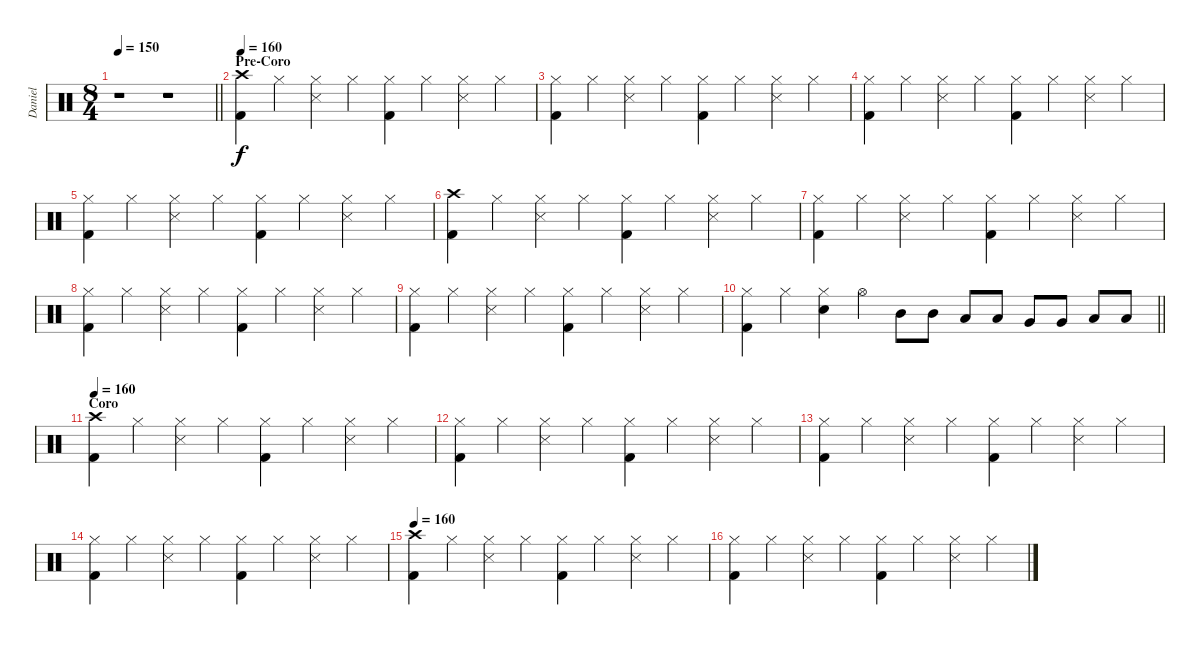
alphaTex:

\track ("Daniel" "Daniel") {instrument percussion}
\staff {score}
\articulation defaults
\ts (8 4)
\tempo 150
\clef neutral
\barLineRight lightlight
\ks c
r.1{dy f} r.1 |
\section ("" "Pre-Coro")
\tempo 160
("Crash high (hit)" "Kick (hit) 2").4 "Hi-Hat (closed)".4 ("Hi-Hat (closed)" "Snare (side stick) 3").4 "Hi-Hat (closed)".4 ("Hi-Hat (closed)" "Kick (hit) 2").4 "Hi-Hat (closed)".4 ("Hi-Hat (closed)" "Snare (side stick) 3").4 "Hi-Hat (closed)".4 |
("Hi-Hat (closed)" "Kick (hit) 2").4 "Hi-Hat (closed)".4 ("Hi-Hat (closed)" "Snare (side stick) 3").4 "Hi-Hat (closed)".4 ("Hi-Hat (closed)" "Kick (hit) 2").4 "Hi-Hat (closed)".4 ("Hi-Hat (closed)" "Snare (side stick) 3").4 "Hi-Hat (closed)".4 |
("Hi-Hat (closed)" "Kick (hit) 2").4 "Hi-Hat (closed)".4 ("Hi-Hat (closed)" "Snare (side stick) 3").4 "Hi-Hat (closed)".4 ("Hi-Hat (closed)" "Kick (hit) 2").4 "Hi-Hat (closed)".4 ("Hi-Hat (closed)" "Snare (side stick) 3").4 "Hi-Hat (closed)".4 |
("Hi-Hat (closed)" "Kick (hit) 2").4 "Hi-Hat (closed)".4 ("Hi-Hat (closed)" "Snare (side stick) 3").4 "Hi-Hat (closed)".4 ("Hi-Hat (closed)" "Kick (hit) 2").4 "Hi-Hat (closed)".4 ("Hi-Hat (closed)" "Snare (side stick) 3").4 "Hi-Hat (closed)".4 |
("Crash high (hit)" "Kick (hit) 2").4 "Hi-Hat (closed)".4 ("Hi-Hat (closed)" "Snare (side stick) 3").4 "Hi-Hat (closed)".4 ("Hi-Hat (closed)" "Kick (hit) 2").4 "Hi-Hat (closed)".4 ("Hi-Hat (closed)" "Snare (side stick) 3").4 "Hi-Hat (closed)".4 |
("Hi-Hat (closed)" "Kick (hit) 2").4 "Hi-Hat (closed)".4 ("Hi-Hat (closed)" "Snare (side stick) 3").4 "Hi-Hat (closed)".4 ("Hi-Hat (closed)" "Kick (hit) 2").4 "Hi-Hat (closed)".4 ("Hi-Hat (closed)" "Snare (side stick) 3").4 "Hi-Hat (closed)".4 |
("Hi-Hat (closed)" "Kick (hit) 2").4 "Hi-Hat (closed)".4 ("Hi-Hat (closed)" "Snare (side stick) 3").4 "Hi-Hat (closed)".4 ("Hi-Hat (closed)" "Kick (hit) 2").4 "Hi-Hat (closed)".4 ("Hi-Hat (closed)" "Snare (side stick) 3").4 "Hi-Hat (closed)".4 |
("Hi-Hat (closed)" "Kick (hit) 2").4 "Hi-Hat (closed)".4 ("Hi-Hat (closed)" "Snare (side stick) 3").4 "Hi-Hat (closed)".4 ("Hi-Hat (closed)" "Kick (hit) 2").4 "Hi-Hat (closed)".4 ("Hi-Hat (closed)" "Snare (side stick) 3").4 "Hi-Hat (closed)".4 |
\barLineRight lightlight
("Hi-Hat (closed)" "Kick (hit) 2").4 "Hi-Hat (closed)".4 ("Hi-Hat (closed)" "Snare (hit) 2").4 "Hi-Hat (open)".4 "Mid Tom (hit)".8 "Mid Tom (hit)".8 "Low Tom (hit)".8 "Low Tom (hit)".8 "Very Low Tom (hit)".8 "Very Low Tom (hit)".8 "Low Floor Tom (hit)".8 "Low Floor Tom (hit)".8 |
\section ("" "Coro")
\tempo 160
("Crash high (hit)" "Kick (hit) 2").4 "Hi-Hat (closed)".4 ("Hi-Hat (closed)" "Snare (side stick) 3").4 "Hi-Hat (closed)".4 ("Hi-Hat (closed)" "Kick (hit) 2").4 "Hi-Hat (closed)".4 ("Hi-Hat (closed)" "Snare (side stick) 3").4 "Hi-Hat (closed)".4 |
("Hi-Hat (closed)" "Kick (hit) 2").4 "Hi-Hat (closed)".4 ("Hi-Hat (closed)" "Snare (side stick) 3").4 "Hi-Hat (closed)".4 ("Hi-Hat (closed)" "Kick (hit) 2").4 "Hi-Hat (closed)".4 ("Hi-Hat (closed)" "Snare (side stick) 3").4 "Hi-Hat (closed)".4 |
("Hi-Hat (closed)" "Kick (hit) 2").4 "Hi-Hat (closed)".4 ("Hi-Hat (closed)" "Snare (side stick) 3").4 "Hi-Hat (closed)".4 ("Hi-Hat (closed)" "Kick (hit) 2").4 "Hi-Hat (closed)".4 ("Hi-Hat (closed)" "Snare (side stick) 3").4 "Hi-Hat (closed)".4 |
("Hi-Hat (closed)" "Kick (hit) 2").4 "Hi-Hat (closed)".4 ("Hi-Hat (closed)" "Snare (side stick) 3").4 "Hi-Hat (closed)".4 ("Hi-Hat (closed)" "Kick (hit) 2").4 "Hi-Hat (closed)".4 ("Hi-Hat (closed)" "Snare (side stick) 3").4 "Hi-Hat (closed)".4 |
\tempo 160
("Crash high (hit)" "Kick (hit) 2").4 "Hi-Hat (closed)".4 ("Hi-Hat (closed)" "Snare (side stick) 3").4 "Hi-Hat (closed)".4 ("Hi-Hat (closed)" "Kick (hit) 2").4 "Hi-Hat (closed)".4 ("Hi-Hat (closed)" "Snare (side stick) 3").4 "Hi-Hat (closed)".4 |
("Hi-Hat (closed)" "Kick (hit) 2").4 "Hi-Hat (closed)".4 ("Hi-Hat (closed)" "Snare (side stick) 3").4 "Hi-Hat (closed)".4 ("Hi-Hat (closed)" "Kick (hit) 2").4 "Hi-Hat (closed)".4 ("Hi-Hat (closed)" "Snare (side stick) 3").4 "Hi-Hat (closed)".4
